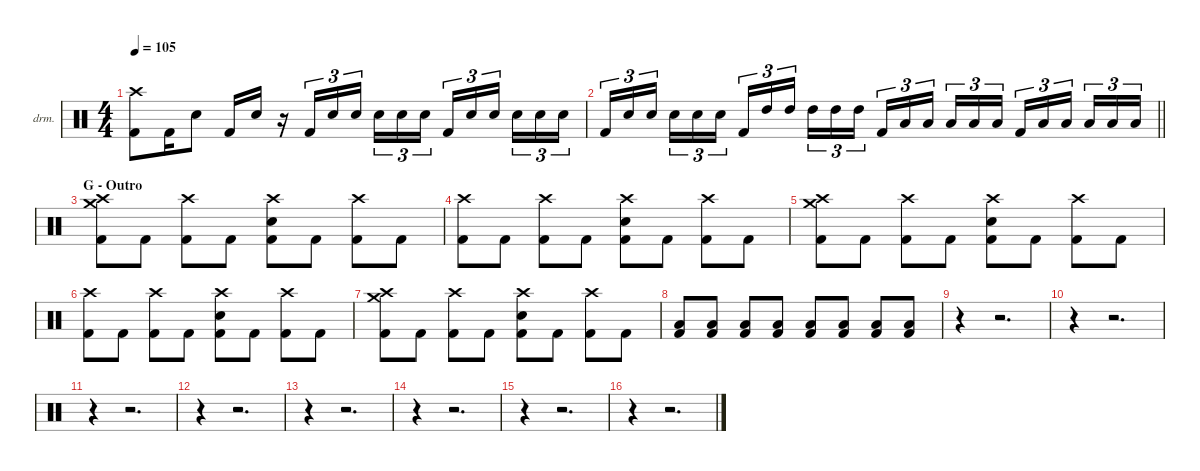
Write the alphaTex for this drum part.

\defaultSystemsLayout 4
\hideDynamics
\bracketExtendMode nobrackets
\firstSystemTrackNameOrientation horizontal
\otherSystemsTrackNameOrientation horizontal
\track ("Percussions" "drm.") {instrument percussion}
\staff {score}
\articulation defaults
\ts (4 4)
\tempo 105
\clef neutral
\ks c
("Crash high (hit)" "Kick (hit) 2").8{dy f} "Kick (hit) 2".16 "Snare (hit) 2".8 "Kick (hit) 2".16 "Snare (hit) 2".16 r.16 "Kick (hit) 2".16{tu (3 2)} "Snare (hit) 2".16{tu (3 2)} "Snare (hit) 2".16{tu (3 2)} "Snare (hit) 2".16{tu (3 2)} "Snare (hit) 2".16{tu (3 2)} "Snare (hit) 2".16{tu (3 2)} "Kick (hit) 2".16{tu (3 2)} "Snare (hit) 2".16{tu (3 2)} "Snare (hit) 2".16{tu (3 2)} "Snare (hit) 2".16{tu (3 2)} "Snare (hit) 2".16{tu (3 2)} "Snare (hit) 2".16{tu (3 2)} |
\barLineRight lightlight "Kick (hit) 2".16{tu (3 2)} "Snare (hit) 2".16{tu (3 2)} "Snare (hit) 2".16{tu (3 2)} "Snare (hit) 2".16{tu (3 2)} "Snare (hit) 2".16{tu (3 2)} "Snare (hit) 2".16{tu (3 2)} "Kick (hit) 2".16{tu (3 2)} "High Tom (hit)".16{tu (3 2)} "High Tom (hit)".16{tu (3 2)} "High Tom (hit)".16{tu (3 2)} "High Tom (hit)".16{tu (3 2)} "High Tom (hit)".16{tu (3 2)} "Kick (hit) 2".16{tu (3 2)} "Low Tom (hit)".16{tu (3 2)} "Low Tom (hit)".16{tu (3 2)} "Low Tom (hit)".16{tu (3 2)} "Low Tom (hit)".16{tu (3 2)} "Low Tom (hit)".16{tu (3 2)} "Kick (hit) 2".16{tu (3 2)} "Low Floor Tom (hit)".16{tu (3 2)} "Low Floor Tom (hit)".16{tu (3 2)} "Low Floor Tom (hit)".16{tu (3 2)} "Low Floor Tom (hit)".16{tu (3 2)} "Low Floor Tom (hit)".16{tu (3 2)}
|
\section ("" "G - Outro")
("Crash medium (hit)" "Crash high (hit)" "Kick (hit) 2").8 "Kick (hit) 2".8 ("Crash high (hit)" "Kick (hit) 2").8 "Kick (hit) 2".8 ("Crash high (hit)" "Snare (hit) 2" "Kick (hit) 2").8 "Kick (hit) 2".8 ("Crash high (hit)" "Kick (hit) 2").8 "Kick (hit) 2".8 |
("Crash high (hit)" "Kick (hit) 2").8 "Kick (hit) 2".8 ("Crash high (hit)" "Kick (hit) 2").8 "Kick (hit) 2".8 ("Crash high (hit)" "Snare (hit) 2" "Kick (hit) 2").8 "Kick (hit) 2".8 ("Crash high (hit)" "Kick (hit) 2").8 "Kick (hit) 2".8 |
("Crash medium (hit)" "Crash high (hit)" "Kick (hit) 2").8 "Kick (hit) 2".8 ("Crash high (hit)" "Kick (hit) 2").8 "Kick (hit) 2".8 ("Crash high (hit)" "Snare (hit) 2" "Kick (hit) 2").8 "Kick (hit) 2".8 ("Crash high (hit)" "Kick (hit) 2").8 "Kick (hit) 2".8 |
("Crash high (hit)" "Kick (hit) 2").8 "Kick (hit) 2".8 ("Crash high (hit)" "Kick (hit) 2").8 "Kick (hit) 2".8 ("Crash high (hit)" "Snare (hit) 2" "Kick (hit) 2").8 "Kick (hit) 2".8 ("Crash high (hit)" "Kick (hit) 2").8 "Kick (hit) 2".8 |
("Crash medium (hit)" "Crash high (hit)" "Kick (hit) 2").8 "Kick (hit) 2".8 ("Crash high (hit)" "Kick (hit) 2").8 "Kick (hit) 2".8 ("Crash high (hit)" "Snare (hit) 2" "Kick (hit) 2").8 "Kick (hit) 2".8 ("Crash high (hit)" "Kick (hit) 2").8 "Kick (hit) 2".8 |
("Low Tom (hit)" "Kick (hit) 2").8{dy mf} ("Low Tom (hit)" "Kick (hit) 2").8 ("Low Tom (hit)" "Kick (hit) 2").8{dy f} ("Low Tom (hit)" "Kick (hit) 2").8 ("Low Tom (hit)" "Kick (hit) 2").8{dy ff} ("Low Tom (hit)" "Kick (hit) 2").8 ("Low Tom (hit)" "Kick (hit) 2").8{dy fff} ("Low Tom (hit)" "Kick (hit) 2").8 |
r.4 r.2{d} |
r.4 r.2{d} |
r.4 r.2{d} |
r.4 r.2{d} |
r.4 r.2{d} |
r.4 r.2{d} |
r.4 r.2{d} |
r.4 r.2{d}
